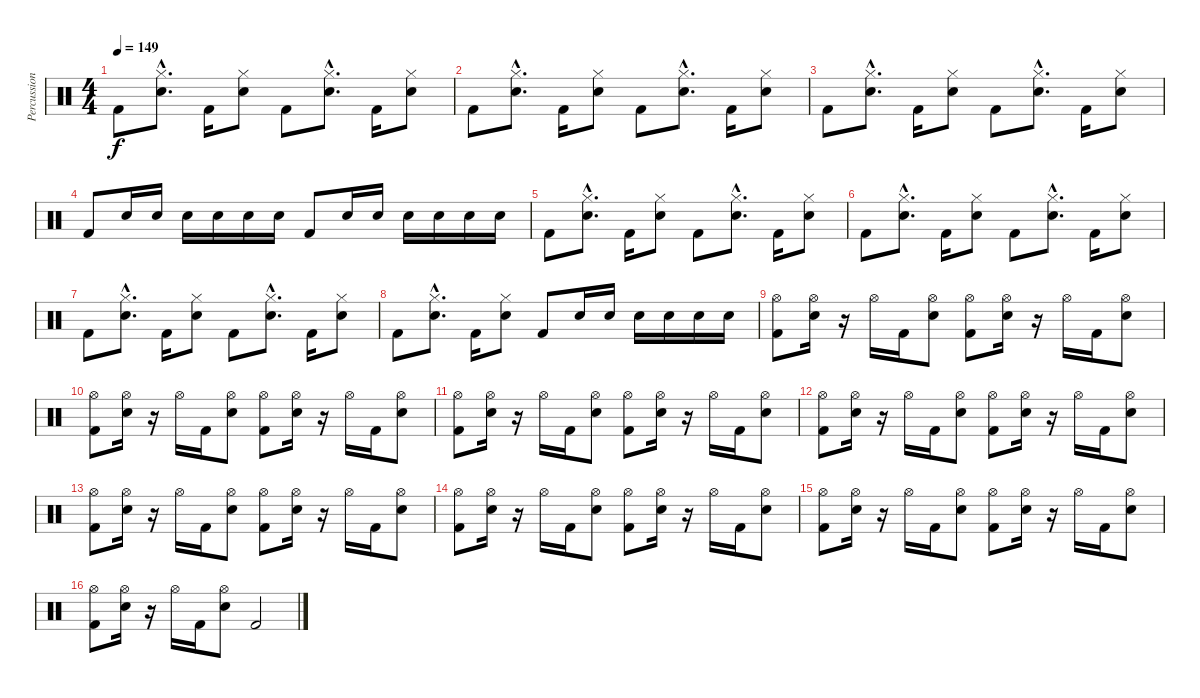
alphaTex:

\track ("Percussion" "Percussion") {instrument percussion}
\staff {score}
\articulation defaults
\ts (4 4)
\tempo 149
\clef neutral
\ks c "Kick (hit) 2".8{dy f}
("Snare (hit) 2"{hac} "Hi-Hat (closed)"{hac}).8{d} "Kick (hit) 2".16 ("Snare (hit) 2" "Hi-Hat (closed)").8 "Kick (hit) 2".8 ("Snare (hit) 2"{hac} "Hi-Hat (closed)"{hac}).8{d} "Kick (hit) 2".16 ("Snare (hit) 2" "Hi-Hat (closed)").8 |
"Kick (hit) 2".8 ("Snare (hit) 2"{hac} "Hi-Hat (closed)"{hac}).8{d} "Kick (hit) 2".16 ("Snare (hit) 2" "Hi-Hat (closed)").8 "Kick (hit) 2".8 ("Snare (hit) 2"{hac} "Hi-Hat (closed)"{hac}).8{d} "Kick (hit) 2".16 ("Snare (hit) 2" "Hi-Hat (closed)").8 |
"Kick (hit) 2".8 ("Snare (hit) 2"{hac} "Hi-Hat (closed)"{hac}).8{d} "Kick (hit) 2".16 ("Snare (hit) 2" "Hi-Hat (closed)").8 "Kick (hit) 2".8 ("Snare (hit) 2"{hac} "Hi-Hat (closed)"{hac}).8{d} "Kick (hit) 2".16 ("Snare (hit) 2" "Hi-Hat (closed)").8 |
"Kick (hit) 2".8 "Snare (hit) 2".16 "Snare (hit) 2".16 "Snare (hit) 2".16 "Snare (hit) 2".16 "Snare (hit) 2".16 "Snare (hit) 2".16 "Kick (hit) 2".8 "Snare (hit) 2".16 "Snare (hit) 2".16 "Snare (hit) 2".16 "Snare (hit) 2".16 "Snare (hit) 2".16 "Snare (hit) 2".16 |
"Kick (hit) 2".8 ("Snare (hit) 2"{hac} "Hi-Hat (closed)"{hac}).8{d} "Kick (hit) 2".16 ("Snare (hit) 2" "Hi-Hat (closed)").8 "Kick (hit) 2".8 ("Snare (hit) 2"{hac} "Hi-Hat (closed)"{hac}).8{d} "Kick (hit) 2".16 ("Snare (hit) 2" "Hi-Hat (closed)").8 |
"Kick (hit) 2".8 ("Snare (hit) 2"{hac} "Hi-Hat (closed)"{hac}).8{d} "Kick (hit) 2".16 ("Snare (hit) 2" "Hi-Hat (closed)").8 "Kick (hit) 2".8 ("Snare (hit) 2"{hac} "Hi-Hat (closed)"{hac}).8{d} "Kick (hit) 2".16 ("Snare (hit) 2" "Hi-Hat (closed)").8 |
"Kick (hit) 2".8 ("Snare (hit) 2"{hac} "Hi-Hat (closed)"{hac}).8{d} "Kick (hit) 2".16 ("Snare (hit) 2" "Hi-Hat (closed)").8 "Kick (hit) 2".8 ("Snare (hit) 2"{hac} "Hi-Hat (closed)"{hac}).8{d} "Kick (hit) 2".16 ("Snare (hit) 2" "Hi-Hat (closed)").8 |
"Kick (hit) 2".8 ("Snare (hit) 2"{hac} "Hi-Hat (closed)"{hac}).8{d} "Kick (hit) 2".16 ("Snare (hit) 2" "Hi-Hat (closed)").8 "Kick (hit) 2".8 "Snare (hit) 2".16 "Snare (hit) 2".16 "Snare (hit) 2".16 "Snare (hit) 2".16 "Snare (hit) 2".16 "Snare (hit) 2".16 |
("Kick (hit) 2" "Hi-Hat (open)").8 ("Snare (hit) 2" "Hi-Hat (open)").16 r.16 "Hi-Hat (open)".16 "Kick (hit) 2".16 ("Snare (hit) 2" "Hi-Hat (open)").8 ("Kick (hit) 2" "Hi-Hat (open)").8 ("Snare (hit) 2" "Hi-Hat (open)").16 r.16 "Hi-Hat (open)".16 "Kick (hit) 2".16 ("Snare (hit) 2" "Hi-Hat (open)").8 |
("Kick (hit) 2" "Hi-Hat (open)").8 ("Snare (hit) 2" "Hi-Hat (open)").16 r.16 "Hi-Hat (open)".16 "Kick (hit) 2".16 ("Snare (hit) 2" "Hi-Hat (open)").8 ("Kick (hit) 2" "Hi-Hat (open)").8 ("Snare (hit) 2" "Hi-Hat (open)").16 r.16 "Hi-Hat (open)".16 "Kick (hit) 2".16 ("Snare (hit) 2" "Hi-Hat (open)").8 |
("Kick (hit) 2" "Hi-Hat (open)").8 ("Snare (hit) 2" "Hi-Hat (open)").16 r.16 "Hi-Hat (open)".16 "Kick (hit) 2".16 ("Snare (hit) 2" "Hi-Hat (open)").8 ("Kick (hit) 2" "Hi-Hat (open)").8 ("Snare (hit) 2" "Hi-Hat (open)").16 r.16 "Hi-Hat (open)".16 "Kick (hit) 2".16 ("Snare (hit) 2" "Hi-Hat (open)").8 |
("Kick (hit) 2" "Hi-Hat (open)").8 ("Snare (hit) 2" "Hi-Hat (open)").16 r.16 "Hi-Hat (open)".16 "Kick (hit) 2".16 ("Snare (hit) 2" "Hi-Hat (open)").8 ("Kick (hit) 2" "Hi-Hat (open)").8 ("Snare (hit) 2" "Hi-Hat (open)").16 r.16 "Hi-Hat (open)".16 "Kick (hit) 2".16 ("Snare (hit) 2" "Hi-Hat (open)").8 |
("Kick (hit) 2" "Hi-Hat (open)").8 ("Snare (hit) 2" "Hi-Hat (open)").16 r.16 "Hi-Hat (open)".16 "Kick (hit) 2".16 ("Snare (hit) 2" "Hi-Hat (open)").8 ("Kick (hit) 2" "Hi-Hat (open)").8 ("Snare (hit) 2" "Hi-Hat (open)").16 r.16 "Hi-Hat (open)".16 "Kick (hit) 2".16 ("Snare (hit) 2" "Hi-Hat (open)").8 |
("Kick (hit) 2" "Hi-Hat (open)").8 ("Snare (hit) 2" "Hi-Hat (open)").16 r.16 "Hi-Hat (open)".16 "Kick (hit) 2".16 ("Snare (hit) 2" "Hi-Hat (open)").8 ("Kick (hit) 2" "Hi-Hat (open)").8 ("Snare (hit) 2" "Hi-Hat (open)").16 r.16 "Hi-Hat (open)".16 "Kick (hit) 2".16 ("Snare (hit) 2" "Hi-Hat (open)").8 |
("Kick (hit) 2" "Hi-Hat (open)").8 ("Snare (hit) 2" "Hi-Hat (open)").16 r.16 "Hi-Hat (open)".16 "Kick (hit) 2".16 ("Snare (hit) 2" "Hi-Hat (open)").8 ("Kick (hit) 2" "Hi-Hat (open)").8 ("Snare (hit) 2" "Hi-Hat (open)").16 r.16 "Hi-Hat (open)".16 "Kick (hit) 2".16 ("Snare (hit) 2" "Hi-Hat (open)").8 |
("Kick (hit) 2" "Hi-Hat (open)").8 ("Snare (hit) 2" "Hi-Hat (open)").16 r.16 "Hi-Hat (open)".16 "Kick (hit) 2".16 ("Snare (hit) 2" "Hi-Hat (open)").8 "Kick (hit) 2".2
